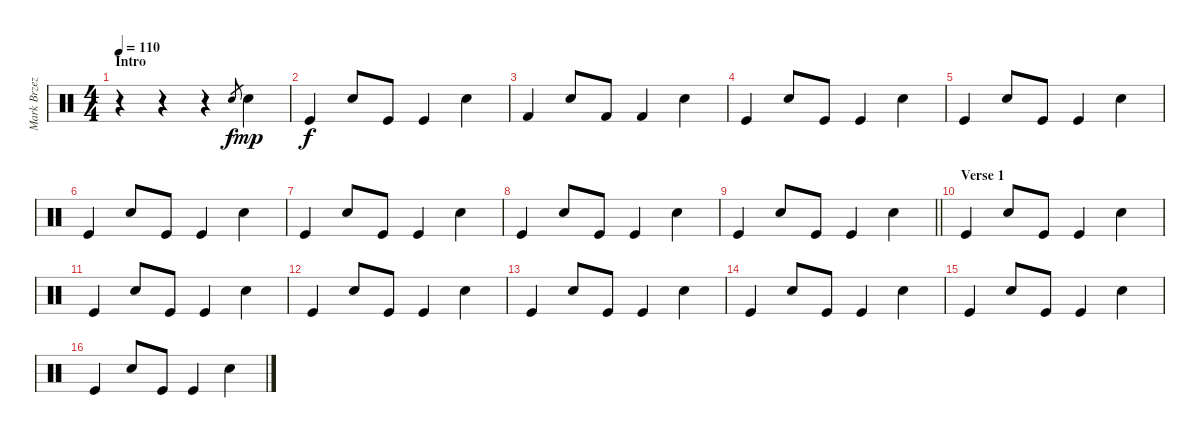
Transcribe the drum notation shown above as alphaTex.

\track ("Mark Brzezicki - Toms, Snare & Bass Drum" "Mark Brzez") {instrument percussion}
\staff {score}
\articulation defaults
\ts (4 4)
\section ("" "Intro")
\tempo 110
\clef neutral
\ks c
r.4{dy f} r.4 r.4 "Electric Snare (hit)"{h}.8{gr} "Electric Snare (hit)".4{dy mp} |
"Kick (hit)".4{dy f} "Electric Snare (hit)".8 "Kick (hit)".8 "Kick (hit)".4 "Electric Snare (hit)".4 |
"Kick (hit) 2".4 "Electric Snare (hit)".8 "Kick (hit) 2".8 "Kick (hit) 2".4 "Electric Snare (hit)".4 |
"Kick (hit)".4 "Electric Snare (hit)".8 "Kick (hit)".8 "Kick (hit)".4 "Electric Snare (hit)".4 |
"Kick (hit)".4 "Electric Snare (hit)".8 "Kick (hit)".8 "Kick (hit)".4 "Electric Snare (hit)".4 |
"Kick (hit)".4 "Electric Snare (hit)".8 "Kick (hit)".8 "Kick (hit)".4 "Electric Snare (hit)".4 |
"Kick (hit)".4 "Electric Snare (hit)".8 "Kick (hit)".8 "Kick (hit)".4 "Electric Snare (hit)".4 |
"Kick (hit)".4 "Electric Snare (hit)".8 "Kick (hit)".8 "Kick (hit)".4 "Electric Snare (hit)".4 |
\barLineRight lightlight "Kick (hit)".4 "Electric Snare (hit)".8 "Kick (hit)".8 "Kick (hit)".4 "Electric Snare (hit)".4
|
\section ("" "Verse 1")
"Kick (hit)".4 "Electric Snare (hit)".8 "Kick (hit)".8 "Kick (hit)".4 "Electric Snare (hit)".4 |
"Kick (hit)".4 "Electric Snare (hit)".8 "Kick (hit)".8 "Kick (hit)".4 "Electric Snare (hit)".4 |
"Kick (hit)".4 "Electric Snare (hit)".8 "Kick (hit)".8 "Kick (hit)".4 "Electric Snare (hit)".4 |
"Kick (hit)".4 "Electric Snare (hit)".8 "Kick (hit)".8 "Kick (hit)".4 "Electric Snare (hit)".4 |
"Kick (hit)".4 "Electric Snare (hit)".8 "Kick (hit)".8 "Kick (hit)".4 "Electric Snare (hit)".4 |
"Kick (hit)".4 "Electric Snare (hit)".8 "Kick (hit)".8 "Kick (hit)".4 "Electric Snare (hit)".4 |
"Kick (hit)".4 "Electric Snare (hit)".8 "Kick (hit)".8 "Kick (hit)".4 "Electric Snare (hit)".4
